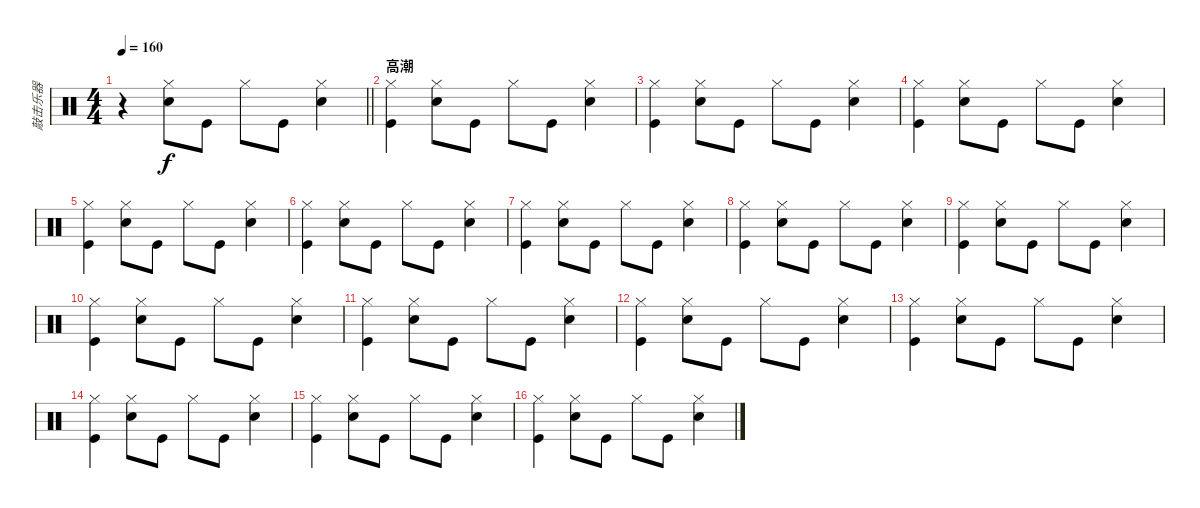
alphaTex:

\track ("敲击乐器" "敲击乐器") {instrument percussion}
\staff {score}
\articulation defaults
\ts (4 4)
\tempo 160
\clef neutral
\barLineRight lightlight
\ks c
r.4{dy f} ("Hi-Hat (closed)" "Snare (hit) 2").8 "Kick (hit)".8 "Hi-Hat (closed)".8 "Kick (hit)".8 ("Hi-Hat (closed)" "Snare (hit) 2").4 |
\section ("" "高潮")
("Kick (hit)" "Hi-Hat (closed)").4 ("Hi-Hat (closed)" "Snare (hit) 2").8 "Kick (hit)".8 "Hi-Hat (closed)".8 "Kick (hit)".8 ("Hi-Hat (closed)" "Snare (hit) 2").4 |
("Kick (hit)" "Hi-Hat (closed)").4 ("Hi-Hat (closed)" "Snare (hit) 2").8 "Kick (hit)".8 "Hi-Hat (closed)".8 "Kick (hit)".8 ("Hi-Hat (closed)" "Snare (hit) 2").4 |
("Kick (hit)" "Hi-Hat (closed)").4 ("Hi-Hat (closed)" "Snare (hit) 2").8 "Kick (hit)".8 "Hi-Hat (closed)".8 "Kick (hit)".8 ("Hi-Hat (closed)" "Snare (hit) 2").4 |
("Kick (hit)" "Hi-Hat (closed)").4 ("Hi-Hat (closed)" "Snare (hit) 2").8 "Kick (hit)".8 "Hi-Hat (closed)".8 "Kick (hit)".8 ("Hi-Hat (closed)" "Snare (hit) 2").4 |
("Kick (hit)" "Hi-Hat (closed)").4 ("Hi-Hat (closed)" "Snare (hit) 2").8 "Kick (hit)".8 "Hi-Hat (closed)".8 "Kick (hit)".8 ("Hi-Hat (closed)" "Snare (hit) 2").4 |
("Kick (hit)" "Hi-Hat (closed)").4 ("Hi-Hat (closed)" "Snare (hit) 2").8 "Kick (hit)".8 "Hi-Hat (closed)".8 "Kick (hit)".8 ("Hi-Hat (closed)" "Snare (hit) 2").4 |
("Kick (hit)" "Hi-Hat (closed)").4 ("Hi-Hat (closed)" "Snare (hit) 2").8 "Kick (hit)".8 "Hi-Hat (closed)".8 "Kick (hit)".8 ("Hi-Hat (closed)" "Snare (hit) 2").4 |
("Kick (hit)" "Hi-Hat (closed)").4 ("Hi-Hat (closed)" "Snare (hit) 2").8 "Kick (hit)".8 "Hi-Hat (closed)".8 "Kick (hit)".8 ("Hi-Hat (closed)" "Snare (hit) 2").4 |
("Kick (hit)" "Hi-Hat (closed)").4 ("Hi-Hat (closed)" "Snare (hit) 2").8 "Kick (hit)".8 "Hi-Hat (closed)".8 "Kick (hit)".8 ("Hi-Hat (closed)" "Snare (hit) 2").4 |
("Kick (hit)" "Hi-Hat (closed)").4 ("Hi-Hat (closed)" "Snare (hit) 2").8 "Kick (hit)".8 "Hi-Hat (closed)".8 "Kick (hit)".8 ("Hi-Hat (closed)" "Snare (hit) 2").4 |
("Kick (hit)" "Hi-Hat (closed)").4 ("Hi-Hat (closed)" "Snare (hit) 2").8 "Kick (hit)".8 "Hi-Hat (closed)".8 "Kick (hit)".8 ("Hi-Hat (closed)" "Snare (hit) 2").4 |
("Kick (hit)" "Hi-Hat (closed)").4 ("Hi-Hat (closed)" "Snare (hit) 2").8 "Kick (hit)".8 "Hi-Hat (closed)".8 "Kick (hit)".8 ("Hi-Hat (closed)" "Snare (hit) 2").4 |
("Kick (hit)" "Hi-Hat (closed)").4 ("Hi-Hat (closed)" "Snare (hit) 2").8 "Kick (hit)".8 "Hi-Hat (closed)".8 "Kick (hit)".8 ("Hi-Hat (closed)" "Snare (hit) 2").4 |
("Kick (hit)" "Hi-Hat (closed)").4 ("Hi-Hat (closed)" "Snare (hit) 2").8 "Kick (hit)".8 "Hi-Hat (closed)".8 "Kick (hit)".8 ("Hi-Hat (closed)" "Snare (hit) 2").4 |
("Kick (hit)" "Hi-Hat (closed)").4 ("Hi-Hat (closed)" "Snare (hit) 2").8 "Kick (hit)".8 "Hi-Hat (closed)".8 "Kick (hit)".8 ("Hi-Hat (closed)" "Snare (hit) 2").4
